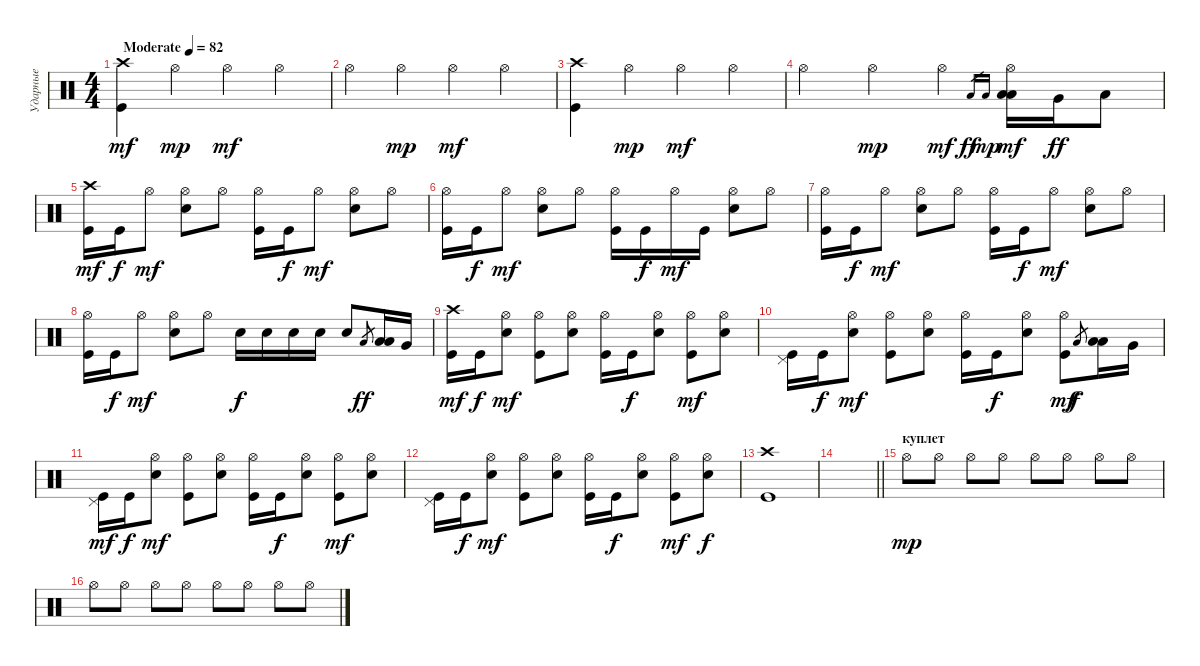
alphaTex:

\track ("Ударные" "Ударные") {instrument percussion}
\staff {score}
\articulation defaults
\ts (4 4)
\tempo (82 "Moderate")
\clef neutral
\ks c
("Kick (hit)" "Crash high (hit)").4{dy mf} "Hi-Hat (open)".4{dy mp} "Hi-Hat (open)".4{dy mf} "Hi-Hat (open)".4 |
"Hi-Hat (open)".4 "Hi-Hat (open)".4{dy mp} "Hi-Hat (open)".4{dy mf} "Hi-Hat (open)".4 |
("Kick (hit)" "Crash high (hit)").4 "Hi-Hat (open)".4{dy mp} "Hi-Hat (open)".4{dy mf} "Hi-Hat (open)".4 |
"Hi-Hat (open)".4 "Hi-Hat (open)".4{dy mp} "Hi-Hat (open)".4{dy mf} "Low Tom (hit)".16{gr dy ff} "Low Tom (hit)".16{gr dy mp} ("Low Tom (hit)" "Low Tom (hit)" "Hi-Hat (open)").16{dy mf} "Very Low Tom (hit)".16{dy ff} "Low Floor Tom (hit)".8 |
("Kick (hit)" "Crash high (hit)").16{dy mf} "Kick (hit)".16{dy f} "Hi-Hat (open)".8{dy mf} ("Snare (hit) 2" "Hi-Hat (open)").8 "Hi-Hat (open)".8 ("Kick (hit)" "Hi-Hat (open)").16 "Kick (hit)".16{dy f} "Hi-Hat (open)".8{dy mf} ("Snare (hit) 2" "Hi-Hat (open)").8 "Hi-Hat (open)".8 |
("Kick (hit)" "Hi-Hat (open)").16 "Kick (hit)".16{dy f} "Hi-Hat (open)".8{dy mf} ("Snare (hit) 2" "Hi-Hat (open)").8 "Hi-Hat (open)".8 ("Kick (hit)" "Hi-Hat (open)").16 "Kick (hit)".16{dy f} "Hi-Hat (open)".16{dy mf} "Kick (hit)".16 ("Snare (hit) 2" "Hi-Hat (open)").8 "Hi-Hat (open)".8 |
("Kick (hit)" "Hi-Hat (open)").16 "Kick (hit)".16{dy f} "Hi-Hat (open)".8{dy mf} ("Snare (hit) 2" "Hi-Hat (open)").8 "Hi-Hat (open)".8 ("Kick (hit)" "Hi-Hat (open)").16 "Kick (hit)".16{dy f} "Hi-Hat (open)".8{dy mf} ("Snare (hit) 2" "Hi-Hat (open)").8 "Hi-Hat (open)".8 |
("Kick (hit)" "Hi-Hat (open)").16 "Kick (hit)".16{dy f} "Hi-Hat (open)".8{dy mf} ("Snare (hit) 2" "Hi-Hat (open)").8 "Hi-Hat (open)".8 "Snare (hit) 2".16{dy f} "Snare (hit) 2".16 "Snare (hit) 2".16 "Snare (hit) 2".16 "Snare (hit) 2".8 "Low Tom (hit)".8{gr dy ff} ("Low Tom (hit)" "Low Tom (hit)").16 "Very Low Tom (hit)".16 |
("Kick (hit)" "Crash high (hit)").16{dy mf} "Kick (hit)".16{dy f} ("Snare (hit) 2" "Hi-Hat (open)").8{dy mf} ("Kick (hit)" "Hi-Hat (open)").8 ("Snare (hit) 2" "Hi-Hat (open)").8 ("Kick (hit)" "Hi-Hat (open)").16 "Kick (hit)".16{dy f} ("Snare (hit) 2" "Hi-Hat (open)").8 ("Kick (hit)" "Hi-Hat (open)").8{dy mf} ("Snare (hit) 2" "Hi-Hat (open)").8 |
("Kick (hit)" "Pedal Hi-Hat (hit)").16 "Kick (hit)".16{dy f} ("Snare (hit) 2" "Hi-Hat (open)").8{dy mf} ("Kick (hit)" "Hi-Hat (open)").8 ("Snare (hit) 2" "Hi-Hat (open)").8 ("Kick (hit)" "Hi-Hat (open)").16 "Kick (hit)".16{dy f} ("Snare (hit) 2" "Hi-Hat (open)").8 ("Kick (hit)" "Hi-Hat (open)").8{dy mf} "Low Tom (hit)".8{gr dy f} ("Low Tom (hit)" "Low Tom (hit)").16 "Very Low Tom (hit)".16 |
("Kick (hit)" "Pedal Hi-Hat (hit)").16{dy mf} "Kick (hit)".16{dy f} ("Snare (hit) 2" "Hi-Hat (open)").8{dy mf} ("Kick (hit)" "Hi-Hat (open)").8 ("Snare (hit) 2" "Hi-Hat (open)").8 ("Kick (hit)" "Hi-Hat (open)").16 "Kick (hit)".16{dy f} ("Snare (hit) 2" "Hi-Hat (open)").8 ("Kick (hit)" "Hi-Hat (open)").8{dy mf} ("Snare (hit) 2" "Hi-Hat (open)").8 |
("Kick (hit)" "Pedal Hi-Hat (hit)").16 "Kick (hit)".16{dy f} ("Snare (hit) 2" "Hi-Hat (open)").8{dy mf} ("Kick (hit)" "Hi-Hat (open)").8 ("Snare (hit) 2" "Hi-Hat (open)").8 ("Kick (hit)" "Hi-Hat (open)").16 "Kick (hit)".16{dy f} ("Snare (hit) 2" "Hi-Hat (open)").8 ("Kick (hit)" "Hi-Hat (open)").8{dy mf} ("Snare (hit) 2" "Hi-Hat (open)").8{dy f} |
("Kick (hit)" "Crash high (hit)").1 |
\barLineRight lightlight
|
\section ("" "куплет")
"Hi-Hat (open)".8{dy mp} "Hi-Hat (open)".8 "Hi-Hat (open)".8 "Hi-Hat (open)".8 "Hi-Hat (open)".8 "Hi-Hat (open)".8 "Hi-Hat (open)".8 "Hi-Hat (open)".8 |
"Hi-Hat (open)".8 "Hi-Hat (open)".8 "Hi-Hat (open)".8 "Hi-Hat (open)".8 "Hi-Hat (open)".8 "Hi-Hat (open)".8 "Hi-Hat (open)".8 "Hi-Hat (open)".8
